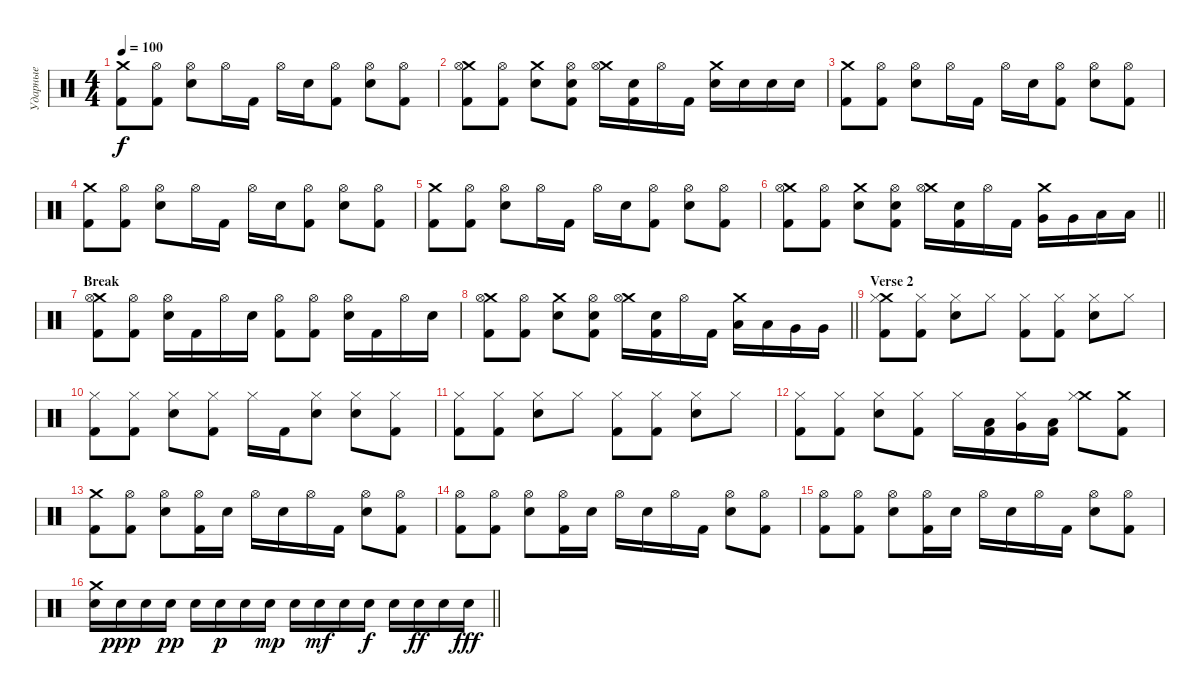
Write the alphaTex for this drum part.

\track ("Ударные" "Ударные") {instrument percussion}
\staff
\articulation defaults
\ts (4 4)
\tempo 100
\clef neutral
\ks c
("Crash medium (hit)" "Kick (hit) 2").8{dy f} ("Hi-Hat (open)" "Kick (hit) 2").8 ("Hi-Hat (open)" "Electric Snare (hit)").8 "Hi-Hat (open)".16 "Kick (hit) 2".16 "Hi-Hat (open)".16 "Electric Snare (hit)".16 ("Hi-Hat (open)" "Kick (hit) 2").8 ("Hi-Hat (open)" "Electric Snare (hit)").8 ("Hi-Hat (open)" "Kick (hit) 2").8 |
("Crash medium (hit)" "Hi-Hat (open)" "Kick (hit) 2").8 ("Hi-Hat (open)" "Kick (hit) 2").8 ("Crash medium (hit)" "Electric Snare (hit)").8 ("Hi-Hat (open)" "Electric Snare (hit)" "Kick (hit) 2").8 ("Crash medium (hit)" "Hi-Hat (open)").16 ("Electric Snare (hit)" "Kick (hit) 2").16 "Hi-Hat (open)".16 "Kick (hit) 2".16 ("Crash medium (hit)" "Electric Snare (hit)").16 "Electric Snare (hit)".16 "Electric Snare (hit)".16 "Electric Snare (hit)".16 |
("Crash medium (hit)" "Kick (hit) 2").8 ("Hi-Hat (open)" "Kick (hit) 2").8 ("Hi-Hat (open)" "Electric Snare (hit)").8 "Hi-Hat (open)".16 "Kick (hit) 2".16 "Hi-Hat (open)".16 "Electric Snare (hit)".16 ("Hi-Hat (open)" "Kick (hit) 2").8 ("Hi-Hat (open)" "Electric Snare (hit)").8 ("Hi-Hat (open)" "Kick (hit) 2").8 |
("Crash medium (hit)" "Kick (hit) 2").8 ("Hi-Hat (open)" "Kick (hit) 2").8 ("Hi-Hat (open)" "Electric Snare (hit)").8 "Hi-Hat (open)".16 "Kick (hit) 2".16 "Hi-Hat (open)".16 "Electric Snare (hit)".16 ("Hi-Hat (open)" "Kick (hit) 2").8 ("Hi-Hat (open)" "Electric Snare (hit)").8 ("Hi-Hat (open)" "Kick (hit) 2").8 |
("Crash medium (hit)" "Kick (hit) 2").8 ("Hi-Hat (open)" "Kick (hit) 2").8 ("Hi-Hat (open)" "Electric Snare (hit)").8 "Hi-Hat (open)".16 "Kick (hit) 2".16 "Hi-Hat (open)".16 "Electric Snare (hit)".16 ("Hi-Hat (open)" "Kick (hit) 2").8 ("Hi-Hat (open)" "Electric Snare (hit)").8 ("Hi-Hat (open)" "Kick (hit) 2").8 |
\barLineRight lightlight
("Crash medium (hit)" "Hi-Hat (open)" "Kick (hit) 2").8 ("Hi-Hat (open)" "Kick (hit) 2").8 ("Crash medium (hit)" "Electric Snare (hit)").8 ("Hi-Hat (open)" "Electric Snare (hit)" "Kick (hit) 2").8 ("Crash medium (hit)" "Hi-Hat (open)").16 ("Electric Snare (hit)" "Kick (hit) 2").16 "Hi-Hat (open)".16 "Kick (hit) 2".16 ("Crash medium (hit)" "Very Low Tom (hit)").16 "Very Low Tom (hit)".16 "Low Floor Tom (hit)".16 "Low Floor Tom (hit)".16 |
\section ("" "Break")
("Crash medium (hit)" "Hi-Hat (open)" "Kick (hit) 2").8 ("Hi-Hat (open)" "Kick (hit) 2").8 ("Hi-Hat (open)" "Electric Snare (hit)").16 "Kick (hit) 2".16 "Hi-Hat (open)".16 "Electric Snare (hit)".16 ("Hi-Hat (open)" "Kick (hit) 2").8 ("Hi-Hat (open)" "Kick (hit) 2").8 ("Hi-Hat (open)" "Electric Snare (hit)").16 "Kick (hit) 2".16 "Hi-Hat (open)".16 "Electric Snare (hit)".16 |
\barLineRight lightlight
("Crash medium (hit)" "Hi-Hat (open)" "Kick (hit) 2").8 ("Hi-Hat (open)" "Kick (hit) 2").8 ("Crash medium (hit)" "Electric Snare (hit)").8 ("Hi-Hat (open)" "Electric Snare (hit)" "Kick (hit) 2").8 ("Crash medium (hit)" "Hi-Hat (open)").16 ("Electric Snare (hit)" "Kick (hit) 2").16 "Hi-Hat (open)".16 "Kick (hit) 2".16 ("Crash medium (hit)" "Low Tom (hit)").16 "Low Tom (hit)".16 "Very Low Tom (hit)".16 "Very Low Tom (hit)".16 |
\section ("" "Verse 2")
("Crash medium (hit)" "Hi-Hat (closed)" "Kick (hit) 2").8 ("Hi-Hat (closed)" "Kick (hit) 2").8 ("Hi-Hat (closed)" "Electric Snare (hit)").8 "Hi-Hat (closed)".8 ("Hi-Hat (closed)" "Kick (hit) 2").8 ("Hi-Hat (closed)" "Kick (hit) 2").8 ("Hi-Hat (closed)" "Electric Snare (hit)").8 "Hi-Hat (closed)".8 |
("Hi-Hat (closed)" "Kick (hit) 2").8 ("Hi-Hat (closed)" "Kick (hit) 2").8 ("Hi-Hat (closed)" "Electric Snare (hit)").8 ("Hi-Hat (closed)" "Kick (hit) 2").8 "Hi-Hat (closed)".16 "Kick (hit) 2".16 ("Hi-Hat (closed)" "Electric Snare (hit)").8 ("Hi-Hat (closed)" "Electric Snare (hit)").8 ("Hi-Hat (closed)" "Kick (hit) 2").8 |
("Hi-Hat (closed)" "Kick (hit) 2").8 ("Hi-Hat (closed)" "Kick (hit) 2").8 ("Hi-Hat (closed)" "Electric Snare (hit)").8 "Hi-Hat (closed)".8 ("Hi-Hat (closed)" "Kick (hit) 2").8 ("Hi-Hat (closed)" "Kick (hit) 2").8 ("Hi-Hat (closed)" "Electric Snare (hit)").8 "Hi-Hat (closed)".8 |
("Hi-Hat (closed)" "Kick (hit) 2").8 ("Hi-Hat (closed)" "Kick (hit) 2").8 ("Hi-Hat (closed)" "Electric Snare (hit)").8 ("Hi-Hat (closed)" "Kick (hit) 2").8 "Hi-Hat (closed)".16 ("Low Floor Tom (hit)" "Kick (hit) 2").16 ("Hi-Hat (closed)" "Very Low Tom (hit)").16 ("Low Floor Tom (hit)" "Kick (hit) 2").16 ("Crash medium (hit)" "Hi-Hat (closed)").8 ("Crash medium (hit)" "Kick (hit) 2").8 |
("Crash medium (hit)" "Kick (hit) 2").8 ("Hi-Hat (open)" "Kick (hit) 2").8 ("Hi-Hat (open)" "Electric Snare (hit)").8 ("Hi-Hat (open)" "Kick (hit) 2").16 "Electric Snare (hit)".16 "Hi-Hat (open)".16 "Electric Snare (hit)".16 "Hi-Hat (open)".16 "Kick (hit) 2".16 ("Hi-Hat (open)" "Electric Snare (hit)").8 ("Hi-Hat (open)" "Kick (hit) 2").8 |
("Hi-Hat (open)" "Kick (hit) 2").8 ("Hi-Hat (open)" "Kick (hit) 2").8 ("Hi-Hat (open)" "Electric Snare (hit)").8 ("Hi-Hat (open)" "Kick (hit) 2").16 "Electric Snare (hit)".16 "Hi-Hat (open)".16 "Electric Snare (hit)".16 "Hi-Hat (open)".16 "Kick (hit) 2".16 ("Hi-Hat (open)" "Electric Snare (hit)").8 ("Hi-Hat (open)" "Kick (hit) 2").8 |
("Hi-Hat (open)" "Kick (hit) 2").8 ("Hi-Hat (open)" "Kick (hit) 2").8 ("Hi-Hat (open)" "Electric Snare (hit)").8 ("Hi-Hat (open)" "Kick (hit) 2").16 "Electric Snare (hit)".16 "Hi-Hat (open)".16 "Electric Snare (hit)".16 "Hi-Hat (open)".16 "Kick (hit) 2".16 ("Hi-Hat (open)" "Electric Snare (hit)").8 ("Hi-Hat (open)" "Kick (hit) 2").8 |
\barLineRight lightlight
("Crash medium (hit)" "Electric Snare (hit)").16 "Electric Snare (hit)".16{dy ppp} "Electric Snare (hit)".16 "Electric Snare (hit)".16{dy pp} "Electric Snare (hit)".16 "Electric Snare (hit)".16{dy p} "Electric Snare (hit)".16 "Electric Snare (hit)".16{dy mp} "Electric Snare (hit)".16 "Electric Snare (hit)".16{dy mf} "Electric Snare (hit)".16 "Electric Snare (hit)".16{dy f} "Electric Snare (hit)".16 "Electric Snare (hit)".16{dy ff} "Electric Snare (hit)".16 "Electric Snare (hit)".16{dy fff}
